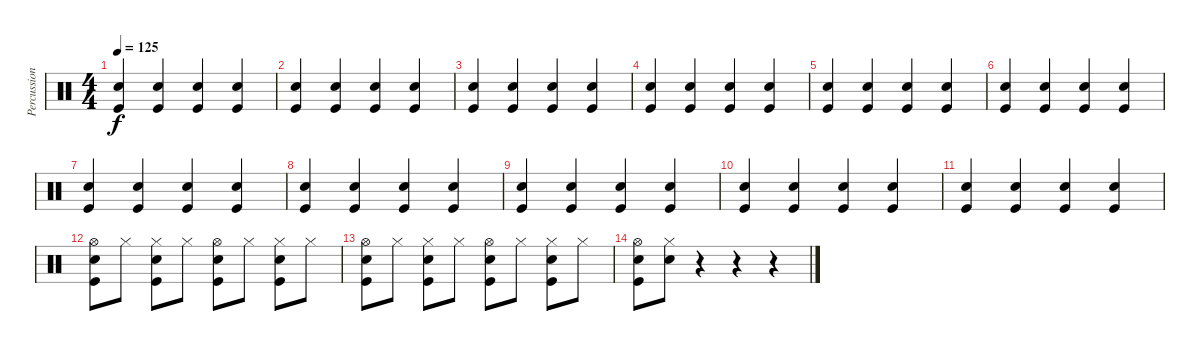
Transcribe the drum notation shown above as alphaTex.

\track ("Percussion" "Percussion") {instrument percussion}
\staff {score}
\articulation defaults
\ts (4 4)
\tempo 125
\clef neutral
\ks c
("Snare (hit) 2" "Kick (hit)").4{dy f} ("Snare (hit) 2" "Kick (hit)").4 ("Snare (hit) 2" "Kick (hit)").4 ("Snare (hit) 2" "Kick (hit)").4 |
("Snare (hit) 2" "Kick (hit)").4 ("Snare (hit) 2" "Kick (hit)").4 ("Snare (hit) 2" "Kick (hit)").4 ("Snare (hit) 2" "Kick (hit)").4 |
("Snare (hit) 2" "Kick (hit)").4 ("Snare (hit) 2" "Kick (hit)").4 ("Snare (hit) 2" "Kick (hit)").4 ("Snare (hit) 2" "Kick (hit)").4 |
("Snare (hit) 2" "Kick (hit)").4 ("Snare (hit) 2" "Kick (hit)").4 ("Snare (hit) 2" "Kick (hit)").4 ("Snare (hit) 2" "Kick (hit)").4 |
("Snare (hit) 2" "Kick (hit)").4 ("Snare (hit) 2" "Kick (hit)").4 ("Snare (hit) 2" "Kick (hit)").4 ("Snare (hit) 2" "Kick (hit)").4 |
("Snare (hit) 2" "Kick (hit)").4 ("Snare (hit) 2" "Kick (hit)").4 ("Snare (hit) 2" "Kick (hit)").4 ("Snare (hit) 2" "Kick (hit)").4 |
("Snare (hit) 2" "Kick (hit)").4 ("Snare (hit) 2" "Kick (hit)").4 ("Snare (hit) 2" "Kick (hit)").4 ("Snare (hit) 2" "Kick (hit)").4 |
("Snare (hit) 2" "Kick (hit)").4 ("Snare (hit) 2" "Kick (hit)").4 ("Snare (hit) 2" "Kick (hit)").4 ("Snare (hit) 2" "Kick (hit)").4 |
("Snare (hit) 2" "Kick (hit)").4 ("Snare (hit) 2" "Kick (hit)").4 ("Snare (hit) 2" "Kick (hit)").4 ("Snare (hit) 2" "Kick (hit)").4 |
("Snare (hit) 2" "Kick (hit)").4 ("Snare (hit) 2" "Kick (hit)").4 ("Snare (hit) 2" "Kick (hit)").4 ("Snare (hit) 2" "Kick (hit)").4 |
("Snare (hit) 2" "Kick (hit)").4 ("Snare (hit) 2" "Kick (hit)").4 ("Snare (hit) 2" "Kick (hit)").4 ("Snare (hit) 2" "Kick (hit)").4 |
("Hi-Hat (open)" "Snare (hit) 2" "Kick (hit)").8 "Hi-Hat (closed)".8 ("Hi-Hat (closed)" "Snare (hit) 2" "Kick (hit)").8 "Hi-Hat (closed)".8 ("Hi-Hat (open)" "Snare (hit) 2" "Kick (hit)").8 "Hi-Hat (closed)".8 ("Hi-Hat (closed)" "Snare (hit) 2" "Kick (hit)").8 "Hi-Hat (closed)".8 |
("Hi-Hat (open)" "Snare (hit) 2" "Kick (hit)").8 "Hi-Hat (closed)".8 ("Hi-Hat (closed)" "Snare (hit) 2" "Kick (hit)").8 "Hi-Hat (closed)".8 ("Hi-Hat (open)" "Snare (hit) 2" "Kick (hit)").8 "Hi-Hat (closed)".8 ("Hi-Hat (closed)" "Snare (hit) 2" "Kick (hit)").8 "Hi-Hat (closed)".8 |
("Hi-Hat (open)" "Snare (hit) 2" "Kick (hit)").8 ("Hi-Hat (closed)" "Snare (hit) 2").8 r.4 r.4 r.4
